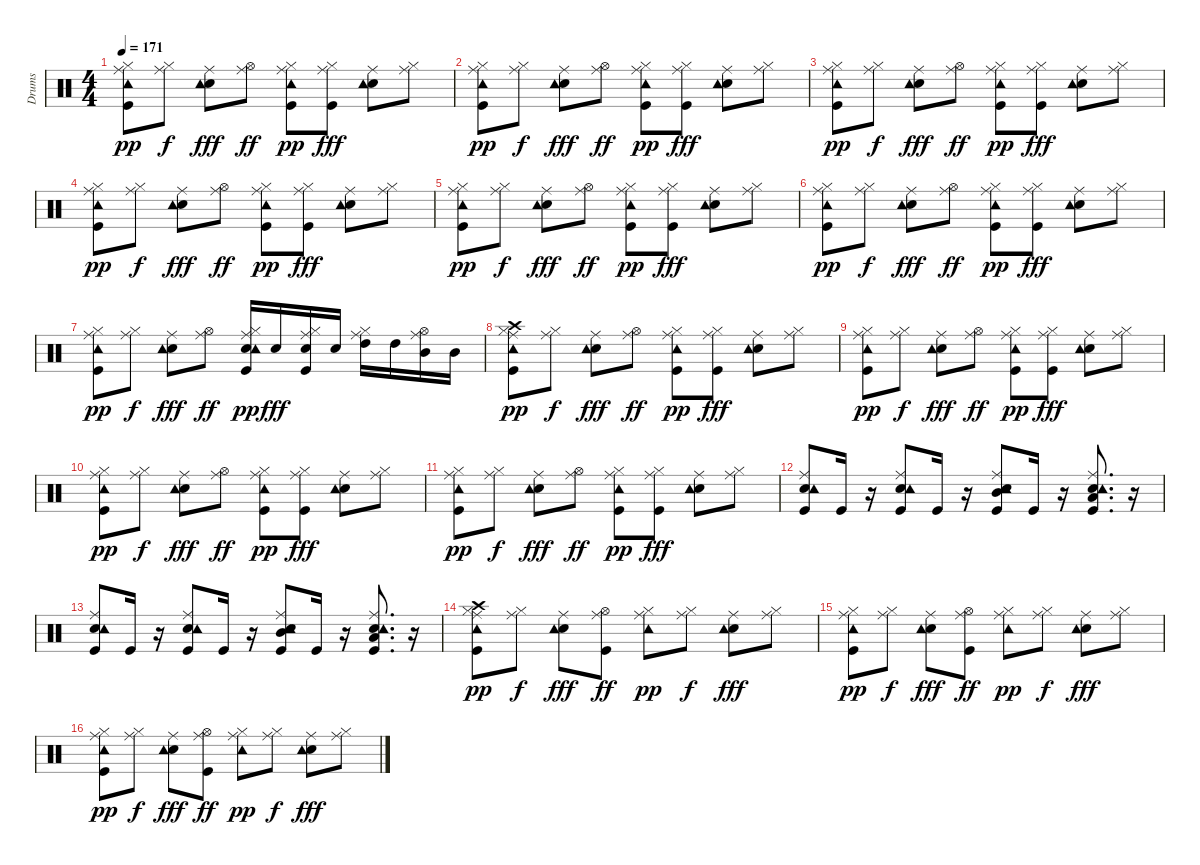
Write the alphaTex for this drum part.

\track ("Drums" "Drums") {instrument percussion}
\staff {score}
\articulation defaults
\ts (4 4)
\tempo 171
\clef neutral
\ks c
("Kick (hit)" "Hi-Hat (closed)" "Ride (middle)" "Tambourine (hit)").8{dy pp} ("Hi-Hat (closed)" "Ride (middle)").8{dy f} ("Snare (hit) 2" "Ride (middle)" "Tambourine (hit)").8{dy fff} ("Hi-Hat (open)" "Ride (middle)").8{dy ff} ("Kick (hit)" "Hi-Hat (closed)" "Ride (middle)" "Tambourine (hit)").8{dy pp} ("Kick (hit)" "Hi-Hat (closed)" "Ride (middle)").8{dy fff} ("Snare (hit) 2" "Ride (middle)" "Tambourine (hit)").8 ("Hi-Hat (closed)" "Ride (middle)").8 |
("Kick (hit)" "Hi-Hat (closed)" "Ride (middle)" "Tambourine (hit)").8{dy pp} ("Hi-Hat (closed)" "Ride (middle)").8{dy f} ("Snare (hit) 2" "Ride (middle)" "Tambourine (hit)").8{dy fff} ("Hi-Hat (open)" "Ride (middle)").8{dy ff} ("Kick (hit)" "Hi-Hat (closed)" "Ride (middle)" "Tambourine (hit)").8{dy pp} ("Kick (hit)" "Hi-Hat (closed)" "Ride (middle)").8{dy fff} ("Snare (hit) 2" "Ride (middle)" "Tambourine (hit)").8 ("Hi-Hat (closed)" "Ride (middle)").8 |
("Kick (hit)" "Hi-Hat (closed)" "Ride (middle)" "Tambourine (hit)").8{dy pp} ("Hi-Hat (closed)" "Ride (middle)").8{dy f} ("Snare (hit) 2" "Ride (middle)" "Tambourine (hit)").8{dy fff} ("Hi-Hat (open)" "Ride (middle)").8{dy ff} ("Kick (hit)" "Hi-Hat (closed)" "Ride (middle)" "Tambourine (hit)").8{dy pp} ("Kick (hit)" "Hi-Hat (closed)" "Ride (middle)").8{dy fff} ("Snare (hit) 2" "Ride (middle)" "Tambourine (hit)").8 ("Hi-Hat (closed)" "Ride (middle)").8 |
("Kick (hit)" "Hi-Hat (closed)" "Ride (middle)" "Tambourine (hit)").8{dy pp} ("Hi-Hat (closed)" "Ride (middle)").8{dy f} ("Snare (hit) 2" "Ride (middle)" "Tambourine (hit)").8{dy fff} ("Hi-Hat (open)" "Ride (middle)").8{dy ff} ("Kick (hit)" "Hi-Hat (closed)" "Ride (middle)" "Tambourine (hit)").8{dy pp} ("Kick (hit)" "Hi-Hat (closed)" "Ride (middle)").8{dy fff} ("Snare (hit) 2" "Ride (middle)" "Tambourine (hit)").8 ("Hi-Hat (closed)" "Ride (middle)").8 |
("Kick (hit)" "Hi-Hat (closed)" "Ride (middle)" "Tambourine (hit)").8{dy pp} ("Hi-Hat (closed)" "Ride (middle)").8{dy f} ("Snare (hit) 2" "Ride (middle)" "Tambourine (hit)").8{dy fff} ("Hi-Hat (open)" "Ride (middle)").8{dy ff} ("Kick (hit)" "Hi-Hat (closed)" "Ride (middle)" "Tambourine (hit)").8{dy pp} ("Kick (hit)" "Hi-Hat (closed)" "Ride (middle)").8{dy fff} ("Snare (hit) 2" "Ride (middle)" "Tambourine (hit)").8 ("Hi-Hat (closed)" "Ride (middle)").8 |
("Kick (hit)" "Hi-Hat (closed)" "Ride (middle)" "Tambourine (hit)").8{dy pp} ("Hi-Hat (closed)" "Ride (middle)").8{dy f} ("Snare (hit) 2" "Ride (middle)" "Tambourine (hit)").8{dy fff} ("Hi-Hat (open)" "Ride (middle)").8{dy ff} ("Kick (hit)" "Hi-Hat (closed)" "Ride (middle)" "Tambourine (hit)").8{dy pp} ("Kick (hit)" "Hi-Hat (closed)" "Ride (middle)").8{dy fff} ("Snare (hit) 2" "Ride (middle)" "Tambourine (hit)").8 ("Hi-Hat (closed)" "Ride (middle)").8 |
("Kick (hit)" "Hi-Hat (closed)" "Ride (middle)" "Tambourine (hit)").8{dy pp} ("Hi-Hat (closed)" "Ride (middle)").8{dy f} ("Snare (hit) 2" "Ride (middle)" "Tambourine (hit)").8{dy fff} ("Hi-Hat (open)" "Ride (middle)").8{dy ff} ("Kick (hit)" "Snare (hit) 2" "Hi-Hat (closed)" "Ride (middle)" "Tambourine (hit)").16{dy pp} "Snare (hit) 2".16{dy fff} ("Kick (hit)" "Snare (hit) 2" "Hi-Hat (closed)" "Ride (middle)").16 "Snare (hit) 2".16 ("Hi-Hat (closed)" "High Tom (hit)" "Ride (middle)").16 "High Tom (hit)".16 ("Hi-Hat (open)" "Mid Tom (hit)" "Ride (middle)").16 "Mid Tom (hit)".16 |
("Kick (hit)" "Hi-Hat (closed)" "Crash high (hit)" "Ride (middle)" "Tambourine (hit)").8{dy pp} ("Hi-Hat (closed)" "Ride (middle)").8{dy f} ("Snare (hit) 2" "Ride (middle)" "Tambourine (hit)").8{dy fff} ("Hi-Hat (open)" "Ride (middle)").8{dy ff} ("Kick (hit)" "Hi-Hat (closed)" "Ride (middle)" "Tambourine (hit)").8{dy pp} ("Kick (hit)" "Hi-Hat (closed)" "Ride (middle)").8{dy fff} ("Snare (hit) 2" "Ride (middle)" "Tambourine (hit)").8 ("Hi-Hat (closed)" "Ride (middle)").8 |
("Kick (hit)" "Hi-Hat (closed)" "Ride (middle)" "Tambourine (hit)").8{dy pp} ("Hi-Hat (closed)" "Ride (middle)").8{dy f} ("Snare (hit) 2" "Ride (middle)" "Tambourine (hit)").8{dy fff} ("Hi-Hat (open)" "Ride (middle)").8{dy ff} ("Kick (hit)" "Hi-Hat (closed)" "Ride (middle)" "Tambourine (hit)").8{dy pp} ("Kick (hit)" "Hi-Hat (closed)" "Ride (middle)").8{dy fff} ("Snare (hit) 2" "Ride (middle)" "Tambourine (hit)").8 ("Hi-Hat (closed)" "Ride (middle)").8 |
("Kick (hit)" "Hi-Hat (closed)" "Ride (middle)" "Tambourine (hit)").8{dy pp} ("Hi-Hat (closed)" "Ride (middle)").8{dy f} ("Snare (hit) 2" "Ride (middle)" "Tambourine (hit)").8{dy fff} ("Hi-Hat (open)" "Ride (middle)").8{dy ff} ("Kick (hit)" "Hi-Hat (closed)" "Ride (middle)" "Tambourine (hit)").8{dy pp} ("Kick (hit)" "Hi-Hat (closed)" "Ride (middle)").8{dy fff} ("Snare (hit) 2" "Ride (middle)" "Tambourine (hit)").8 ("Hi-Hat (closed)" "Ride (middle)").8 |
("Kick (hit)" "Hi-Hat (closed)" "Ride (middle)" "Tambourine (hit)").8{dy pp} ("Hi-Hat (closed)" "Ride (middle)").8{dy f} ("Snare (hit) 2" "Ride (middle)" "Tambourine (hit)").8{dy fff} ("Hi-Hat (open)" "Ride (middle)").8{dy ff} ("Kick (hit)" "Hi-Hat (closed)" "Ride (middle)" "Tambourine (hit)").8{dy pp} ("Kick (hit)" "Hi-Hat (closed)" "Ride (middle)").8{dy fff} ("Snare (hit) 2" "Ride (middle)" "Tambourine (hit)").8 ("Hi-Hat (closed)" "Ride (middle)").8 |
("Kick (hit)" "Snare (hit) 2" "Ride (middle)" "Tambourine (hit)").8 "Kick (hit)".16 r.16 ("Kick (hit)" "Snare (hit) 2" "Ride (middle)" "Tambourine (hit)").8 "Kick (hit)".16 r.16 ("Kick (hit)" "Snare (hit) 2" "Mid Tom (hit)" "Ride (middle)" "Tambourine (hit)").8 "Kick (hit)".16 r.16 ("Kick (hit)" "Snare (hit) 2" "Low Tom (hit)" "Ride (middle)" "Tambourine (hit)").8{d} r.16 |
("Kick (hit)" "Snare (hit) 2" "Ride (middle)" "Tambourine (hit)").8 "Kick (hit)".16 r.16 ("Kick (hit)" "Snare (hit) 2" "Ride (middle)" "Tambourine (hit)").8 "Kick (hit)".16 r.16 ("Kick (hit)" "Snare (hit) 2" "Mid Tom (hit)" "Ride (middle)" "Tambourine (hit)").8 "Kick (hit)".16 r.16 ("Kick (hit)" "Snare (hit) 2" "Low Tom (hit)" "Ride (middle)" "Tambourine (hit)").8{d} r.16 |
("Kick (hit)" "Hi-Hat (closed)" "Crash high (hit)" "Ride (middle)" "Tambourine (hit)").8{dy pp} ("Hi-Hat (closed)" "Ride (middle)").8{dy f} ("Snare (hit) 2" "Ride (middle)" "Tambourine (hit)").8{dy fff} ("Kick (hit)" "Hi-Hat (open)" "Ride (middle)").8{dy ff} ("Hi-Hat (closed)" "Ride (middle)" "Tambourine (hit)").8{dy pp} ("Hi-Hat (closed)" "Ride (middle)").8{dy f} ("Snare (hit) 2" "Ride (middle)" "Tambourine (hit)").8{dy fff} ("Hi-Hat (closed)" "Ride (middle)").8 |
("Kick (hit)" "Hi-Hat (closed)" "Ride (middle)" "Tambourine (hit)").8{dy pp} ("Hi-Hat (closed)" "Ride (middle)").8{dy f} ("Snare (hit) 2" "Ride (middle)" "Tambourine (hit)").8{dy fff} ("Kick (hit)" "Hi-Hat (open)" "Ride (middle)").8{dy ff} ("Hi-Hat (closed)" "Ride (middle)" "Tambourine (hit)").8{dy pp} ("Hi-Hat (closed)" "Ride (middle)").8{dy f} ("Snare (hit) 2" "Ride (middle)" "Tambourine (hit)").8{dy fff} ("Hi-Hat (closed)" "Ride (middle)").8 |
("Kick (hit)" "Hi-Hat (closed)" "Ride (middle)" "Tambourine (hit)").8{dy pp} ("Hi-Hat (closed)" "Ride (middle)").8{dy f} ("Snare (hit) 2" "Ride (middle)" "Tambourine (hit)").8{dy fff} ("Kick (hit)" "Hi-Hat (open)" "Ride (middle)").8{dy ff} ("Hi-Hat (closed)" "Ride (middle)" "Tambourine (hit)").8{dy pp} ("Hi-Hat (closed)" "Ride (middle)").8{dy f} ("Snare (hit) 2" "Ride (middle)" "Tambourine (hit)").8{dy fff} ("Hi-Hat (closed)" "Ride (middle)").8
